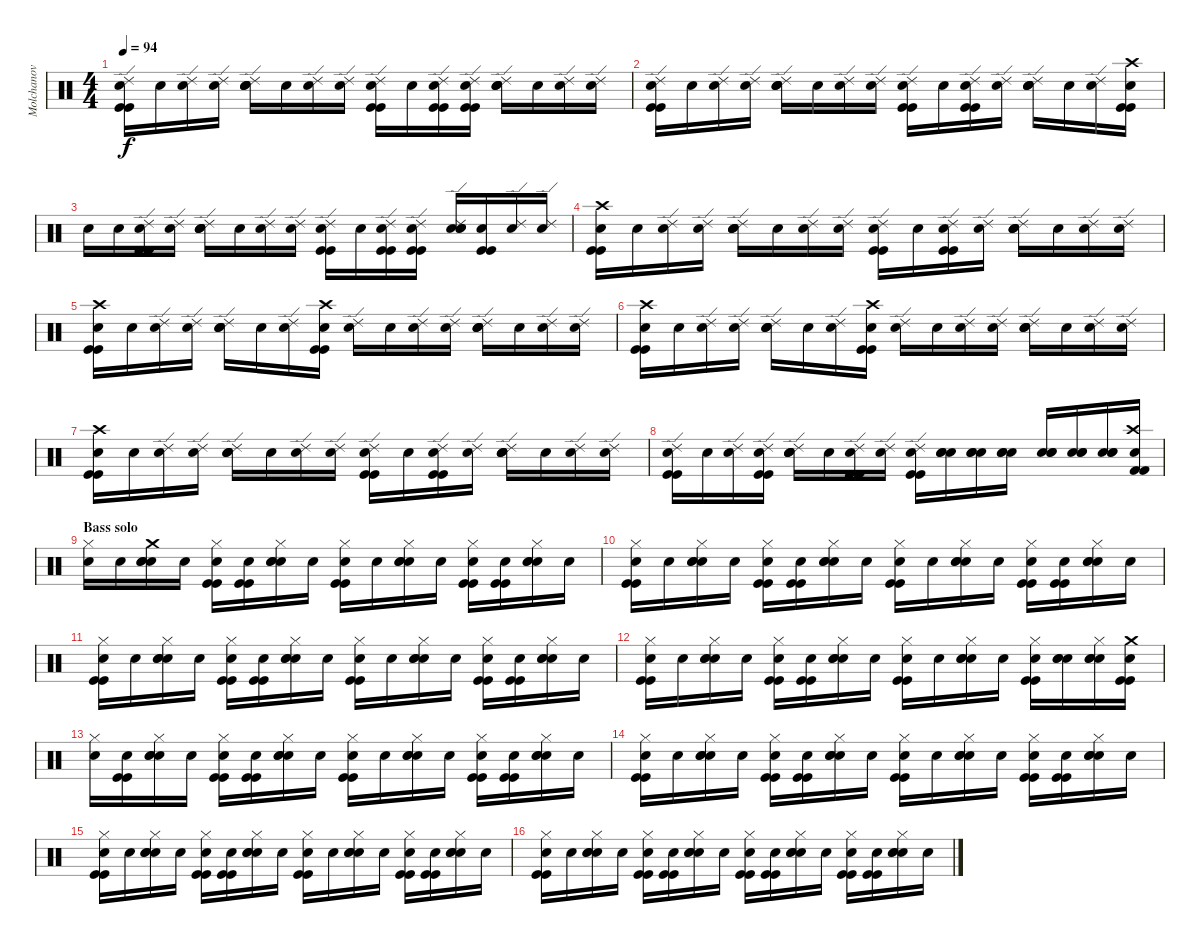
\track ("Molchanov" "Molchanov") {instrument percussion}
\staff {score}
\articulation defaults
\ts (4 4)
\tempo 94
\clef neutral
\ks c
("Ride (edge) 2" "Kick (hit)" "Kick (hit)" "Snare (hit)"{x}).16{dy f} "Snare (hit)"{x}.16 ("Ride (edge) 2" "Snare (hit)"{x}).16 ("Ride (edge) 2" "Snare (hit)"{x}).16 ("Ride (edge) 2" "Electric Snare (hit)" "Electric Snare (hit)" "Snare (hit)"{x}).16 "Snare (hit)"{x}.16 ("Ride (edge) 2" "Snare (hit)"{x}).16 ("Ride (edge) 2" "Snare (hit)"{x}).16 ("Ride (edge) 2" "Kick (hit)" "Kick (hit)" "Snare (hit)"{x}).16 "Snare (hit)"{x}.16 ("Ride (edge) 2" "Kick (hit)" "Kick (hit)" "Snare (hit)"{x}).16 ("Ride (edge) 2" "Kick (hit)" "Kick (hit)" "Snare (hit)"{x}).16 ("Ride (edge) 2" "Electric Snare (hit)" "Electric Snare (hit)" "Snare (hit)"{x}).16 "Snare (hit)"{x}.16 ("Ride (edge) 2" "Snare (hit)"{x}).16 ("Ride (edge) 2" "Snare (hit)"{x}).16 |
("Ride (edge) 2" "Kick (hit)" "Kick (hit)" "Snare (hit)"{x}).16 "Snare (hit)"{x}.16 ("Ride (edge) 2" "Snare (hit)"{x}).16 ("Ride (edge) 2" "Snare (hit)"{x}).16 ("Ride (edge) 2" "Electric Snare (hit)" "Electric Snare (hit)" "Snare (hit)"{x}).16 "Snare (hit)"{x}.16 ("Ride (edge) 2" "Snare (hit)"{x}).16 ("Ride (edge) 2" "Snare (hit)"{x}).16 ("Ride (edge) 2" "Kick (hit)" "Kick (hit)" "Snare (hit)"{x}).16 "Snare (hit)"{x}.16 ("Ride (edge) 2" "Kick (hit)" "Kick (hit)" "Snare (hit)"{x}).16 ("Ride (edge) 2" "Snare (hit)"{x}).16 ("Ride (edge) 2" "Electric Snare (hit)" "Electric Snare (hit)" "Snare (hit)"{x}).16 "Snare (hit)"{x}.16 ("Ride (edge) 2" "Snare (hit)"{x}).16 ("Crash high (hit)" "Kick (hit)" "Kick (hit)" "Snare (hit)"{x}).16 |
"Snare (hit)"{x}.16 "Snare (hit)"{x}.16 ("Ride (edge) 2" "Kick (hit)" "Kick (hit)" "Snare (hit)"{x}).16 ("Ride (edge) 2" "Snare (hit)"{x}).16 ("Ride (edge) 2" "Electric Snare (hit)" "Electric Snare (hit)" "Snare (hit)"{x}).16 "Snare (hit)"{x}.16 ("Ride (edge) 2" "Snare (hit)"{x}).16 ("Ride (edge) 2" "Snare (hit)"{x}).16 ("Ride (edge) 2" "Kick (hit)" "Kick (hit)" "Snare (hit)"{x}).16 "Snare (hit)"{x}.16 ("Ride (edge) 2" "Kick (hit)" "Kick (hit)" "Snare (hit)"{x}).16 ("Ride (edge) 2" "Kick (hit)" "Kick (hit)" "Snare (hit)"{x}).16 ("Ride (edge) 2" "Electric Snare (hit)" "Electric Snare (hit)" "Snare (hit)"{x}).16 ("Kick (hit)" "Kick (hit)" "Snare (hit)"{x}).16 ("Ride (edge) 2" "Snare (hit)"{x}).16 ("Ride (edge) 2" "Snare (hit)"{x}).16 |
("Crash high (hit)" "Kick (hit)" "Kick (hit)" "Snare (hit)"{x}).16 "Snare (hit)"{x}.16 ("Ride (edge) 2" "Snare (hit)"{x}).16 ("Ride (edge) 2" "Snare (hit)"{x}).16 ("Ride (edge) 2" "Electric Snare (hit)" "Electric Snare (hit)" "Snare (hit)"{x}).16 "Snare (hit)"{x}.16 ("Ride (edge) 2" "Snare (hit)"{x}).16 ("Ride (edge) 2" "Snare (hit)"{x}).16 ("Ride (edge) 2" "Kick (hit)" "Kick (hit)" "Snare (hit)"{x}).16 "Snare (hit)"{x}.16 ("Ride (edge) 2" "Kick (hit)" "Kick (hit)" "Snare (hit)"{x}).16 ("Ride (edge) 2" "Snare (hit)"{x}).16 ("Ride (edge) 2" "Electric Snare (hit)" "Electric Snare (hit)" "Snare (hit)"{x}).16 "Snare (hit)"{x}.16 ("Ride (edge) 2" "Snare (hit)"{x}).16 ("Ride (edge) 2" "Snare (hit)"{x}).16 |
("Crash high (hit)" "Kick (hit)" "Kick (hit)" "Snare (hit)"{x}).16 "Snare (hit)"{x}.16 ("Ride (edge) 2" "Snare (hit)"{x}).16 ("Ride (edge) 2" "Snare (hit)"{x}).16 ("Ride (edge) 2" "Electric Snare (hit)" "Electric Snare (hit)" "Snare (hit)"{x}).16 "Snare (hit)"{x}.16 ("Ride (edge) 2" "Snare (hit)"{x}).16 ("Crash high (hit)" "Kick (hit)" "Kick (hit)" "Snare (hit)"{x}).16 ("Ride (edge) 2" "Snare (hit)"{x}).16 "Snare (hit)"{x}.16 ("Ride (edge) 2" "Snare (hit)"{x}).16 ("Ride (edge) 2" "Snare (hit)"{x}).16 ("Ride (edge) 2" "Electric Snare (hit)" "Electric Snare (hit)" "Snare (hit)"{x}).16 "Snare (hit)"{x}.16 ("Ride (edge) 2" "Snare (hit)"{x}).16 ("Ride (edge) 2" "Snare (hit)"{x}).16 |
("Crash high (hit)" "Kick (hit)" "Kick (hit)" "Snare (hit)"{x}).16 "Snare (hit)"{x}.16 ("Ride (edge) 2" "Snare (hit)"{x}).16 ("Ride (edge) 2" "Snare (hit)"{x}).16 ("Ride (edge) 2" "Electric Snare (hit)" "Electric Snare (hit)" "Snare (hit)"{x}).16 "Snare (hit)"{x}.16 ("Ride (edge) 2" "Snare (hit)"{x}).16 ("Crash high (hit)" "Kick (hit)" "Kick (hit)" "Snare (hit)"{x}).16 ("Ride (edge) 2" "Snare (hit)"{x}).16 "Snare (hit)"{x}.16 ("Ride (edge) 2" "Snare (hit)"{x}).16 ("Ride (edge) 2" "Snare (hit)"{x}).16 ("Ride (edge) 2" "Electric Snare (hit)" "Electric Snare (hit)" "Snare (hit)"{x}).16 "Snare (hit)"{x}.16 ("Ride (edge) 2" "Snare (hit)"{x}).16 ("Ride (edge) 2" "Snare (hit)"{x}).16 |
("Crash high (hit)" "Kick (hit)" "Kick (hit)" "Snare (hit)"{x}).16 "Snare (hit)"{x}.16 ("Ride (edge) 2" "Snare (hit)"{x}).16 ("Ride (edge) 2" "Snare (hit)"{x}).16 ("Ride (edge) 2" "Electric Snare (hit)" "Electric Snare (hit)" "Snare (hit)"{x}).16 "Snare (hit)"{x}.16 ("Ride (edge) 2" "Snare (hit)"{x}).16 ("Ride (edge) 2" "Snare (hit)"{x}).16 ("Ride (edge) 2" "Kick (hit)" "Kick (hit)" "Snare (hit)"{x}).16 "Snare (hit)"{x}.16 ("Ride (edge) 2" "Kick (hit)" "Kick (hit)" "Snare (hit)"{x}).16 ("Ride (edge) 2" "Snare (hit)"{x}).16 ("Ride (edge) 2" "Electric Snare (hit)" "Electric Snare (hit)" "Snare (hit)"{x}).16 "Snare (hit)"{x}.16 ("Ride (edge) 2" "Snare (hit)"{x}).16 ("Ride (edge) 2" "Snare (hit)"{x}).16 |
("Ride (edge) 2" "Kick (hit)" "Kick (hit)" "Snare (hit)"{x}).16 "Snare (hit)"{x}.16 ("Ride (edge) 2" "Snare (hit)"{x}).16 ("Ride (edge) 2" "Kick (hit)" "Kick (hit)" "Snare (hit)"{x}).16 ("Ride (edge) 2" "Electric Snare (hit)" "Electric Snare (hit)" "Snare (hit)"{x}).16 "Snare (hit)"{x}.16 ("Ride (edge) 2" "Kick (hit)" "Kick (hit)" "Snare (hit)"{x}).16 ("Ride (edge) 2" "Snare (hit)"{x}).16 ("Ride (edge) 2" "Kick (hit)" "Kick (hit)" "Snare (hit)"{x}).16 ("Electric Snare (hit)" "Electric Snare (hit)" "Snare (hit)"{x}).16 ("Electric Snare (hit)" "Electric Snare (hit)" "Snare (hit)"{x}).16 ("Electric Snare (hit)" "Electric Snare (hit)" "Snare (hit)"{x}).16 ("Electric Snare (hit)" "Electric Snare (hit)" "Snare (hit)"{x}).16 ("Electric Snare (hit)" "Electric Snare (hit)" "Snare (hit)"{x}).16 ("Electric Snare (hit)" "Electric Snare (hit)" "Snare (hit)"{x}).16 ("Crash high (hit)" "Kick (hit) 2" "Kick (hit) 2" "Snare (hit)"{x}).16 |
\section ("" "Bass solo")
("Hi-Hat (closed)" "Snare (hit)"{x}).16 "Snare (hit)"{x}.16 ("Crash medium (hit)" "Electric Snare (hit)" "Electric Snare (hit)" "Snare (hit)"{x}).16 "Snare (hit)"{x}.16 ("Hi-Hat (closed)" "Kick (hit)" "Kick (hit)" "Snare (hit)"{x}).16 ("Kick (hit)" "Kick (hit)" "Snare (hit)"{x}).16 ("Hi-Hat (closed)" "Electric Snare (hit)" "Electric Snare (hit)" "Snare (hit)"{x}).16 "Snare (hit)"{x}.16 ("Hi-Hat (closed)" "Kick (hit)" "Kick (hit)" "Snare (hit)"{x}).16 "Snare (hit)"{x}.16 ("Hi-Hat (closed)" "Electric Snare (hit)" "Electric Snare (hit)" "Snare (hit)"{x}).16 "Snare (hit)"{x}.16 ("Hi-Hat (closed)" "Kick (hit)" "Kick (hit)" "Snare (hit)"{x}).16 ("Kick (hit)" "Kick (hit)" "Snare (hit)"{x}).16 ("Hi-Hat (closed)" "Electric Snare (hit)" "Electric Snare (hit)" "Snare (hit)"{x}).16 "Snare (hit)"{x}.16 |
("Hi-Hat (closed)" "Kick (hit)" "Kick (hit)" "Snare (hit)"{x}).16 "Snare (hit)"{x}.16 ("Hi-Hat (closed)" "Electric Snare (hit)" "Electric Snare (hit)" "Snare (hit)"{x}).16 "Snare (hit)"{x}.16 ("Hi-Hat (closed)" "Kick (hit)" "Kick (hit)" "Snare (hit)"{x}).16 ("Kick (hit)" "Kick (hit)" "Snare (hit)"{x}).16 ("Hi-Hat (closed)" "Electric Snare (hit)" "Electric Snare (hit)" "Snare (hit)"{x}).16 "Snare (hit)"{x}.16 ("Hi-Hat (closed)" "Kick (hit)" "Kick (hit)" "Snare (hit)"{x}).16 "Snare (hit)"{x}.16 ("Hi-Hat (closed)" "Electric Snare (hit)" "Electric Snare (hit)" "Snare (hit)"{x}).16 "Snare (hit)"{x}.16 ("Hi-Hat (closed)" "Kick (hit)" "Kick (hit)" "Snare (hit)"{x}).16 ("Kick (hit)" "Kick (hit)" "Snare (hit)"{x}).16 ("Hi-Hat (closed)" "Electric Snare (hit)" "Electric Snare (hit)" "Snare (hit)"{x}).16 "Snare (hit)"{x}.16 |
("Hi-Hat (closed)" "Kick (hit)" "Kick (hit)" "Snare (hit)"{x}).16 "Snare (hit)"{x}.16 ("Hi-Hat (closed)" "Electric Snare (hit)" "Electric Snare (hit)" "Snare (hit)"{x}).16 "Snare (hit)"{x}.16 ("Hi-Hat (closed)" "Kick (hit)" "Kick (hit)" "Snare (hit)"{x}).16 ("Kick (hit)" "Kick (hit)" "Snare (hit)"{x}).16 ("Hi-Hat (closed)" "Electric Snare (hit)" "Electric Snare (hit)" "Snare (hit)"{x}).16 "Snare (hit)"{x}.16 ("Hi-Hat (closed)" "Kick (hit)" "Kick (hit)" "Snare (hit)"{x}).16 "Snare (hit)"{x}.16 ("Hi-Hat (closed)" "Electric Snare (hit)" "Electric Snare (hit)" "Snare (hit)"{x}).16 "Snare (hit)"{x}.16 ("Hi-Hat (closed)" "Kick (hit)" "Kick (hit)" "Snare (hit)"{x}).16 ("Kick (hit)" "Kick (hit)" "Snare (hit)"{x}).16 ("Hi-Hat (closed)" "Electric Snare (hit)" "Electric Snare (hit)" "Snare (hit)"{x}).16 "Snare (hit)"{x}.16 |
("Hi-Hat (closed)" "Kick (hit)" "Kick (hit)" "Snare (hit)"{x}).16 "Snare (hit)"{x}.16 ("Hi-Hat (closed)" "Electric Snare (hit)" "Electric Snare (hit)" "Snare (hit)"{x}).16 "Snare (hit)"{x}.16 ("Hi-Hat (closed)" "Kick (hit)" "Kick (hit)" "Snare (hit)"{x}).16 ("Kick (hit)" "Kick (hit)" "Snare (hit)"{x}).16 ("Hi-Hat (closed)" "Electric Snare (hit)" "Electric Snare (hit)" "Snare (hit)"{x}).16 "Snare (hit)"{x}.16 ("Hi-Hat (closed)" "Kick (hit)" "Kick (hit)" "Snare (hit)"{x}).16 "Snare (hit)"{x}.16 ("Hi-Hat (closed)" "Electric Snare (hit)" "Electric Snare (hit)" "Snare (hit)"{x}).16 "Snare (hit)"{x}.16 ("Hi-Hat (closed)" "Kick (hit)" "Kick (hit)" "Snare (hit)"{x}).16 ("Electric Snare (hit)" "Electric Snare (hit)" "Snare (hit)"{x}).16 ("Hi-Hat (closed)" "Electric Snare (hit)" "Electric Snare (hit)" "Snare (hit)"{x}).16 ("Crash medium (hit)" "Kick (hit)" "Kick (hit)" "Snare (hit)"{x}).16 |
("Hi-Hat (closed)" "Snare (hit)"{x}).16 ("Kick (hit)" "Kick (hit)" "Snare (hit)"{x}).16 ("Hi-Hat (closed)" "Electric Snare (hit)" "Electric Snare (hit)" "Snare (hit)"{x}).16 "Snare (hit)"{x}.16 ("Hi-Hat (closed)" "Kick (hit)" "Kick (hit)" "Snare (hit)"{x}).16 ("Kick (hit)" "Kick (hit)" "Snare (hit)"{x}).16 ("Hi-Hat (closed)" "Electric Snare (hit)" "Electric Snare (hit)" "Snare (hit)"{x}).16 "Snare (hit)"{x}.16 ("Hi-Hat (closed)" "Kick (hit)" "Kick (hit)" "Snare (hit)"{x}).16 "Snare (hit)"{x}.16 ("Hi-Hat (closed)" "Electric Snare (hit)" "Electric Snare (hit)" "Snare (hit)"{x}).16 "Snare (hit)"{x}.16 ("Hi-Hat (closed)" "Kick (hit)" "Kick (hit)" "Snare (hit)"{x}).16 ("Kick (hit)" "Kick (hit)" "Snare (hit)"{x}).16 ("Hi-Hat (closed)" "Electric Snare (hit)" "Electric Snare (hit)" "Snare (hit)"{x}).16 "Snare (hit)"{x}.16 |
("Hi-Hat (closed)" "Kick (hit)" "Kick (hit)" "Snare (hit)"{x}).16 "Snare (hit)"{x}.16 ("Hi-Hat (closed)" "Electric Snare (hit)" "Electric Snare (hit)" "Snare (hit)"{x}).16 "Snare (hit)"{x}.16 ("Hi-Hat (closed)" "Kick (hit)" "Kick (hit)" "Snare (hit)"{x}).16 ("Kick (hit)" "Kick (hit)" "Snare (hit)"{x}).16 ("Hi-Hat (closed)" "Electric Snare (hit)" "Electric Snare (hit)" "Snare (hit)"{x}).16 "Snare (hit)"{x}.16 ("Hi-Hat (closed)" "Kick (hit)" "Kick (hit)" "Snare (hit)"{x}).16 "Snare (hit)"{x}.16 ("Hi-Hat (closed)" "Electric Snare (hit)" "Electric Snare (hit)" "Snare (hit)"{x}).16 "Snare (hit)"{x}.16 ("Hi-Hat (closed)" "Kick (hit)" "Kick (hit)" "Snare (hit)"{x}).16 ("Kick (hit)" "Kick (hit)" "Snare (hit)"{x}).16 ("Hi-Hat (closed)" "Electric Snare (hit)" "Electric Snare (hit)" "Snare (hit)"{x}).16 "Snare (hit)"{x}.16 |
("Hi-Hat (closed)" "Kick (hit)" "Kick (hit)" "Snare (hit)"{x}).16 "Snare (hit)"{x}.16 ("Hi-Hat (closed)" "Electric Snare (hit)" "Electric Snare (hit)" "Snare (hit)"{x}).16 "Snare (hit)"{x}.16 ("Hi-Hat (closed)" "Kick (hit)" "Kick (hit)" "Snare (hit)"{x}).16 ("Kick (hit)" "Kick (hit)" "Snare (hit)"{x}).16 ("Hi-Hat (closed)" "Electric Snare (hit)" "Electric Snare (hit)" "Snare (hit)"{x}).16 "Snare (hit)"{x}.16 ("Hi-Hat (closed)" "Kick (hit)" "Kick (hit)" "Snare (hit)"{x}).16 "Snare (hit)"{x}.16 ("Hi-Hat (closed)" "Electric Snare (hit)" "Electric Snare (hit)" "Snare (hit)"{x}).16 "Snare (hit)"{x}.16 ("Hi-Hat (closed)" "Kick (hit)" "Kick (hit)" "Snare (hit)"{x}).16 ("Kick (hit)" "Kick (hit)" "Snare (hit)"{x}).16 ("Hi-Hat (closed)" "Electric Snare (hit)" "Electric Snare (hit)" "Snare (hit)"{x}).16 "Snare (hit)"{x}.16 |
("Hi-Hat (closed)" "Kick (hit)" "Kick (hit)" "Snare (hit)"{x}).16 "Snare (hit)"{x}.16 ("Hi-Hat (closed)" "Electric Snare (hit)" "Electric Snare (hit)" "Snare (hit)"{x}).16 "Snare (hit)"{x}.16 ("Hi-Hat (closed)" "Kick (hit)" "Kick (hit)" "Snare (hit)"{x}).16 ("Kick (hit)" "Kick (hit)" "Snare (hit)"{x}).16 ("Hi-Hat (closed)" "Electric Snare (hit)" "Electric Snare (hit)" "Snare (hit)"{x}).16 "Snare (hit)"{x}.16 ("Hi-Hat (closed)" "Kick (hit)" "Kick (hit)" "Snare (hit)"{x}).16 ("Kick (hit)" "Kick (hit)" "Snare (hit)"{x}).16 ("Hi-Hat (closed)" "Electric Snare (hit)" "Electric Snare (hit)" "Snare (hit)"{x}).16 "Snare (hit)"{x}.16 ("Hi-Hat (closed)" "Kick (hit)" "Kick (hit)" "Snare (hit)"{x}).16 ("Kick (hit)" "Kick (hit)" "Snare (hit)"{x}).16 ("Hi-Hat (closed)" "Electric Snare (hit)" "Electric Snare (hit)" "Snare (hit)"{x}).16 "Snare (hit)"{x}.16
